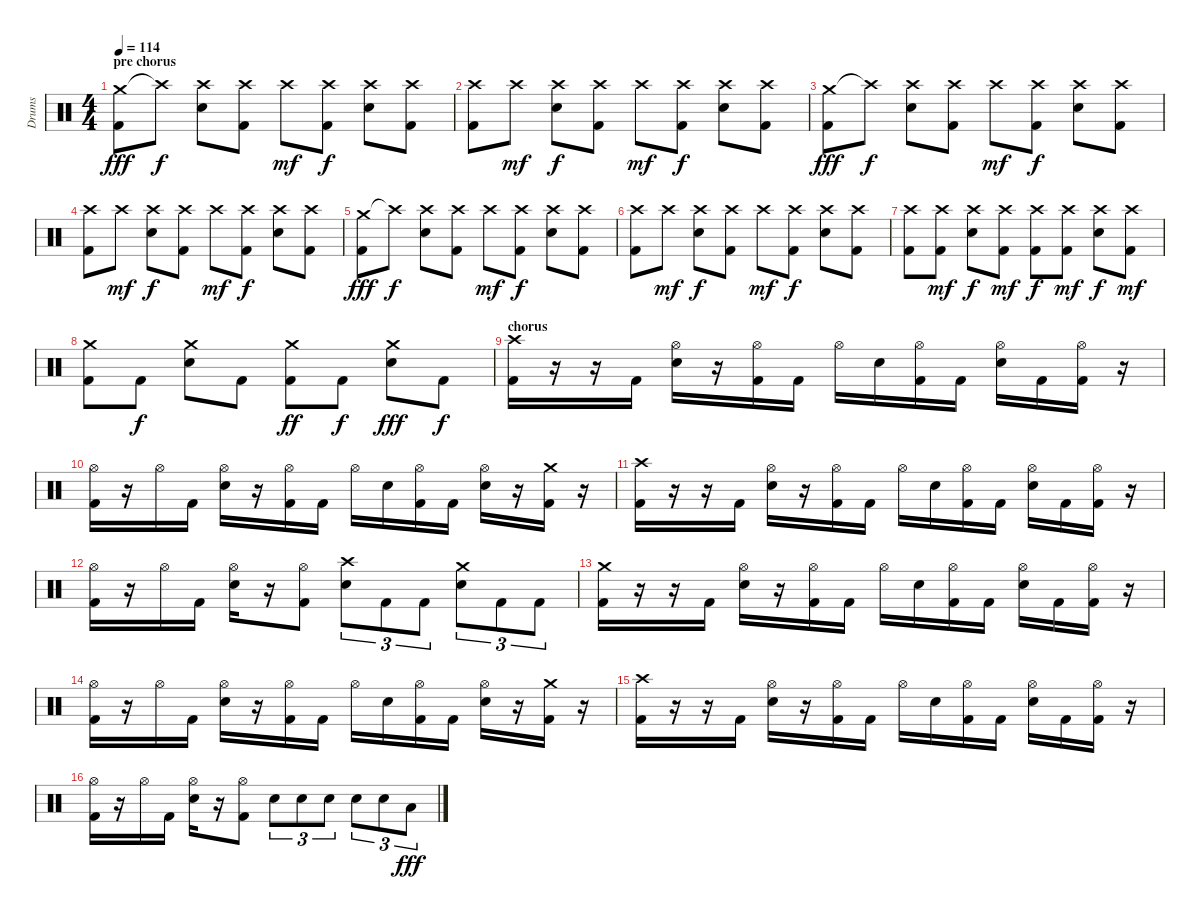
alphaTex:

\track ("Drums" "Drums") {instrument percussion}
\staff {score}
\articulation defaults
\ts (4 4)
\section ("" "pre chorus")
\tempo 114
\clef neutral
\ks c
("Crash medium (hit)" "Kick (hit) 2").8{dy fff} "Crash high (hit)"{t}.8{dy f} ("Crash high (hit)" "Snare (hit) 2").8 ("Crash high (hit)" "Kick (hit) 2").8 "Crash high (hit)".8{dy mf} ("Crash high (hit)" "Kick (hit) 2").8{dy f} ("Crash high (hit)" "Snare (hit) 2").8 ("Crash high (hit)" "Kick (hit) 2").8 |
("Crash high (hit)" "Kick (hit) 2").8 "Crash high (hit)".8{dy mf} ("Crash high (hit)" "Snare (hit) 2").8{dy f} ("Crash high (hit)" "Kick (hit) 2").8 "Crash high (hit)".8{dy mf} ("Crash high (hit)" "Kick (hit) 2").8{dy f} ("Crash high (hit)" "Snare (hit) 2").8 ("Crash high (hit)" "Kick (hit) 2").8 |
("Crash medium (hit)" "Kick (hit) 2").8{dy fff} "Crash high (hit)"{t}.8{dy f} ("Crash high (hit)" "Snare (hit) 2").8 ("Crash high (hit)" "Kick (hit) 2").8 "Crash high (hit)".8{dy mf} ("Crash high (hit)" "Kick (hit) 2").8{dy f} ("Crash high (hit)" "Snare (hit) 2").8 ("Crash high (hit)" "Kick (hit) 2").8 |
("Crash high (hit)" "Kick (hit) 2").8 "Crash high (hit)".8{dy mf} ("Crash high (hit)" "Snare (hit) 2").8{dy f} ("Crash high (hit)" "Kick (hit) 2").8 "Crash high (hit)".8{dy mf} ("Crash high (hit)" "Kick (hit) 2").8{dy f} ("Crash high (hit)" "Snare (hit) 2").8 ("Crash high (hit)" "Kick (hit) 2").8 |
("Crash medium (hit)" "Kick (hit) 2").8{dy fff} "Crash high (hit)"{t}.8{dy f} ("Crash high (hit)" "Snare (hit) 2").8 ("Crash high (hit)" "Kick (hit) 2").8 "Crash high (hit)".8{dy mf} ("Crash high (hit)" "Kick (hit) 2").8{dy f} ("Crash high (hit)" "Snare (hit) 2").8 ("Crash high (hit)" "Kick (hit) 2").8 |
("Crash high (hit)" "Kick (hit) 2").8 "Crash high (hit)".8{dy mf} ("Crash high (hit)" "Snare (hit) 2").8{dy f} ("Crash high (hit)" "Kick (hit) 2").8 "Crash high (hit)".8{dy mf} ("Crash high (hit)" "Kick (hit) 2").8{dy f} ("Crash high (hit)" "Snare (hit) 2").8 ("Crash high (hit)" "Kick (hit) 2").8 |
("Crash high (hit)" "Kick (hit) 2").8 ("Crash high (hit)" "Kick (hit) 2").8{dy mf} ("Crash high (hit)" "Snare (hit) 2").8{dy f} ("Crash high (hit)" "Kick (hit) 2").8{dy mf} ("Crash high (hit)" "Kick (hit) 2").8{dy f} ("Crash high (hit)" "Kick (hit) 2").8{dy mf} ("Crash high (hit)" "Snare (hit) 2").8{dy f} ("Crash high (hit)" "Kick (hit) 2").8{dy mf} |
("Crash medium (hit)" "Kick (hit) 2").8 "Kick (hit) 2".8{dy f} ("Crash medium (hit)" "Snare (hit) 2").8 "Kick (hit) 2".8 ("Crash medium (hit)" "Kick (hit) 2").8{dy ff} "Kick (hit) 2".8{dy f} ("Crash medium (hit)" "Snare (hit) 2").8{dy fff} "Kick (hit) 2".8{dy f} |
\section ("" "chorus")
("Crash high (hit)" "Kick (hit) 2").16 r.16 r.16 "Kick (hit) 2".16 ("Hi-Hat (open)" "Snare (hit) 2").16 r.16 ("Hi-Hat (open)" "Kick (hit) 2").16 "Kick (hit) 2".16 "Hi-Hat (open)".16 "Snare (hit) 2".16 ("Hi-Hat (open)" "Kick (hit) 2").16 "Kick (hit) 2".16 ("Hi-Hat (open)" "Snare (hit) 2").16 "Kick (hit) 2".16 ("Hi-Hat (open)" "Kick (hit) 2").16 r.16 |
("Hi-Hat (open)" "Kick (hit) 2").16 r.16 "Hi-Hat (open)".16 "Kick (hit) 2".16 ("Hi-Hat (open)" "Snare (hit) 2").16 r.16 ("Hi-Hat (open)" "Kick (hit) 2").16 "Kick (hit) 2".16 "Hi-Hat (open)".16 "Snare (hit) 2".16 ("Hi-Hat (open)" "Kick (hit) 2").16 "Kick (hit) 2".16 ("Hi-Hat (open)" "Snare (hit) 2").16 r.16 ("Crash medium (hit)" "Kick (hit) 2").16 r.16 |
("Crash high (hit)" "Kick (hit) 2").16 r.16 r.16 "Kick (hit) 2".16 ("Hi-Hat (open)" "Snare (hit) 2").16 r.16 ("Hi-Hat (open)" "Kick (hit) 2").16 "Kick (hit) 2".16 "Hi-Hat (open)".16 "Snare (hit) 2".16 ("Hi-Hat (open)" "Kick (hit) 2").16 "Kick (hit) 2".16 ("Hi-Hat (open)" "Snare (hit) 2").16 "Kick (hit) 2".16 ("Hi-Hat (open)" "Kick (hit) 2").16 r.16 |
("Hi-Hat (open)" "Kick (hit) 2").16 r.16 "Hi-Hat (open)".16 "Kick (hit) 2".16 ("Hi-Hat (open)" "Snare (hit) 2").16 r.16 ("Hi-Hat (open)" "Kick (hit) 2").8 ("Crash high (hit)" "Snare (hit) 2").8{tu (3 2)} "Kick (hit) 2".8{tu (3 2)} "Kick (hit) 2".8{tu (3 2)} ("Crash medium (hit)" "Snare (hit) 2").8{tu (3 2)} "Kick (hit) 2".8{tu (3 2)} "Kick (hit) 2".8{tu (3 2)} |
("Crash medium (hit)" "Kick (hit) 2").16 r.16 r.16 "Kick (hit) 2".16 ("Hi-Hat (open)" "Snare (hit) 2").16 r.16 ("Hi-Hat (open)" "Kick (hit) 2").16 "Kick (hit) 2".16 "Hi-Hat (open)".16 "Snare (hit) 2".16 ("Hi-Hat (open)" "Kick (hit) 2").16 "Kick (hit) 2".16 ("Hi-Hat (open)" "Snare (hit) 2").16 "Kick (hit) 2".16 ("Hi-Hat (open)" "Kick (hit) 2").16 r.16 |
("Hi-Hat (open)" "Kick (hit) 2").16 r.16 "Hi-Hat (open)".16 "Kick (hit) 2".16 ("Hi-Hat (open)" "Snare (hit) 2").16 r.16 ("Hi-Hat (open)" "Kick (hit) 2").16 "Kick (hit) 2".16 "Hi-Hat (open)".16 "Snare (hit) 2".16 ("Hi-Hat (open)" "Kick (hit) 2").16 "Kick (hit) 2".16 ("Hi-Hat (open)" "Snare (hit) 2").16 r.16 ("Crash medium (hit)" "Kick (hit) 2").16 r.16 |
("Crash high (hit)" "Kick (hit) 2").16 r.16 r.16 "Kick (hit) 2".16 ("Hi-Hat (open)" "Snare (hit) 2").16 r.16 ("Hi-Hat (open)" "Kick (hit) 2").16 "Kick (hit) 2".16 "Hi-Hat (open)".16 "Snare (hit) 2".16 ("Hi-Hat (open)" "Kick (hit) 2").16 "Kick (hit) 2".16 ("Hi-Hat (open)" "Snare (hit) 2").16 "Kick (hit) 2".16 ("Hi-Hat (open)" "Kick (hit) 2").16 r.16 |
("Hi-Hat (open)" "Kick (hit) 2").16 r.16 "Hi-Hat (open)".16 "Kick (hit) 2".16 ("Hi-Hat (open)" "Snare (hit) 2").16 r.16 ("Hi-Hat (open)" "Kick (hit) 2").8 "Snare (hit) 2".8{tu (3 2)} "Snare (hit) 2".8{tu (3 2)} "Snare (hit) 2".8{tu (3 2)} "Snare (hit) 2".8{tu (3 2)} "Snare (hit) 2".8{tu (3 2)} "Low Tom (hit)".8{tu (3 2) dy fff}
